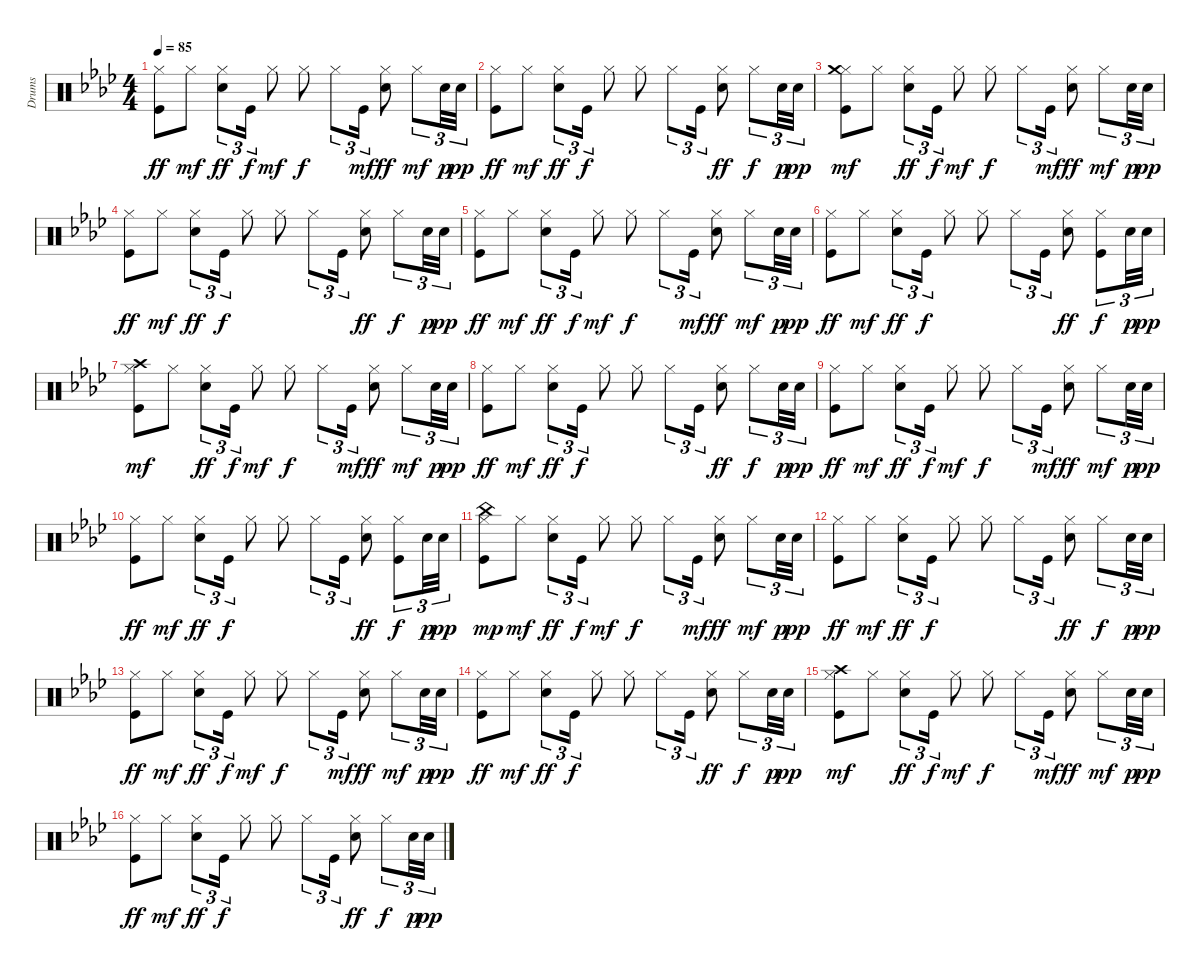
\track ("Drums" "Drums") {instrument percussion}
\staff {score}
\articulation defaults
\ts (4 4)
\tempo 85
\clef neutral
\ks ab
("Kick (hit)" "Hi-Hat (closed)").8{dy ff} "Hi-Hat (closed)".8{dy mf} ("Electric Snare (hit)" "Hi-Hat (closed)").8{tu (3 2) dy ff} "Kick (hit)".16{tu (3 2) dy f} "Hi-Hat (closed)".8{dy mf} "Hi-Hat (closed)".8{dy f} "Hi-Hat (closed)".8{tu (3 2)} "Kick (hit)".16{tu (3 2) dy mf} ("Electric Snare (hit)" "Hi-Hat (closed)").8{dy ff} "Hi-Hat (closed)".8{tu (3 2) dy mf} "Snare (hit) 2".32{tu (3 2) dy p} "Snare (hit) 2".32{tu (3 2) dy pp} |
("Kick (hit)" "Hi-Hat (closed)").8{dy ff} "Hi-Hat (closed)".8{dy mf} ("Electric Snare (hit)" "Hi-Hat (closed)").8{tu (3 2) dy ff} "Kick (hit)".16{tu (3 2) dy f} "Hi-Hat (closed)".8 "Hi-Hat (closed)".8 "Hi-Hat (closed)".8{tu (3 2)} "Kick (hit)".16{tu (3 2)} ("Electric Snare (hit)" "Hi-Hat (closed)").8{dy ff} "Hi-Hat (closed)".8{tu (3 2) dy f} "Snare (hit) 2".32{tu (3 2) dy p} "Snare (hit) 2".32{tu (3 2) dy pp} |
("Kick (hit)" "Hi-Hat (closed)" "Crash medium (hit)").8{dy mf} "Hi-Hat (closed)".8 ("Electric Snare (hit)" "Hi-Hat (closed)").8{tu (3 2) dy ff} "Kick (hit)".16{tu (3 2) dy f} "Hi-Hat (closed)".8{dy mf} "Hi-Hat (closed)".8{dy f} "Hi-Hat (closed)".8{tu (3 2)} "Kick (hit)".16{tu (3 2) dy mf} ("Electric Snare (hit)" "Hi-Hat (closed)").8{dy ff} "Hi-Hat (closed)".8{tu (3 2) dy mf} "Snare (hit) 2".32{tu (3 2) dy p} "Snare (hit) 2".32{tu (3 2) dy pp} |
("Kick (hit)" "Hi-Hat (closed)").8{dy ff} "Hi-Hat (closed)".8{dy mf} ("Electric Snare (hit)" "Hi-Hat (closed)").8{tu (3 2) dy ff} "Kick (hit)".16{tu (3 2) dy f} "Hi-Hat (closed)".8 "Hi-Hat (closed)".8 "Hi-Hat (closed)".8{tu (3 2)} "Kick (hit)".16{tu (3 2)} ("Electric Snare (hit)" "Hi-Hat (closed)").8{dy ff} "Hi-Hat (closed)".8{tu (3 2) dy f} "Snare (hit) 2".32{tu (3 2) dy p} "Snare (hit) 2".32{tu (3 2) dy pp} |
("Kick (hit)" "Hi-Hat (closed)").8{dy ff} "Hi-Hat (closed)".8{dy mf} ("Electric Snare (hit)" "Hi-Hat (closed)").8{tu (3 2) dy ff} "Kick (hit)".16{tu (3 2) dy f} "Hi-Hat (closed)".8{dy mf} "Hi-Hat (closed)".8{dy f} "Hi-Hat (closed)".8{tu (3 2)} "Kick (hit)".16{tu (3 2) dy mf} ("Electric Snare (hit)" "Hi-Hat (closed)").8{dy ff} "Hi-Hat (closed)".8{tu (3 2) dy mf} "Snare (hit) 2".32{tu (3 2) dy p} "Snare (hit) 2".32{tu (3 2) dy pp} |
("Kick (hit)" "Hi-Hat (closed)").8{dy ff} "Hi-Hat (closed)".8{dy mf} ("Electric Snare (hit)" "Hi-Hat (closed)").8{tu (3 2) dy ff} "Kick (hit)".16{tu (3 2) dy f} "Hi-Hat (closed)".8 "Hi-Hat (closed)".8 "Hi-Hat (closed)".8{tu (3 2)} "Kick (hit)".16{tu (3 2)} ("Electric Snare (hit)" "Hi-Hat (closed)").8{dy ff} ("Kick (hit)" "Hi-Hat (closed)").8{tu (3 2) dy f} "Snare (hit) 2".32{tu (3 2) dy p} "Snare (hit) 2".32{tu (3 2) dy pp} |
("Kick (hit)" "Hi-Hat (closed)" "Crash high (hit)").8{dy mf} "Hi-Hat (closed)".8 ("Electric Snare (hit)" "Hi-Hat (closed)").8{tu (3 2) dy ff} "Kick (hit)".16{tu (3 2) dy f} "Hi-Hat (closed)".8{dy mf} "Hi-Hat (closed)".8{dy f} "Hi-Hat (closed)".8{tu (3 2)} "Kick (hit)".16{tu (3 2) dy mf} ("Electric Snare (hit)" "Hi-Hat (closed)").8{dy ff} "Hi-Hat (closed)".8{tu (3 2) dy mf} "Snare (hit) 2".32{tu (3 2) dy p} "Snare (hit) 2".32{tu (3 2) dy pp} |
("Kick (hit)" "Hi-Hat (closed)").8{dy ff} "Hi-Hat (closed)".8{dy mf} ("Electric Snare (hit)" "Hi-Hat (closed)").8{tu (3 2) dy ff} "Kick (hit)".16{tu (3 2) dy f} "Hi-Hat (closed)".8 "Hi-Hat (closed)".8 "Hi-Hat (closed)".8{tu (3 2)} "Kick (hit)".16{tu (3 2)} ("Electric Snare (hit)" "Hi-Hat (closed)").8{dy ff} "Hi-Hat (closed)".8{tu (3 2) dy f} "Snare (hit) 2".32{tu (3 2) dy p} "Snare (hit) 2".32{tu (3 2) dy pp} |
("Kick (hit)" "Hi-Hat (closed)").8{dy ff} "Hi-Hat (closed)".8{dy mf} ("Electric Snare (hit)" "Hi-Hat (closed)").8{tu (3 2) dy ff} "Kick (hit)".16{tu (3 2) dy f} "Hi-Hat (closed)".8{dy mf} "Hi-Hat (closed)".8{dy f} "Hi-Hat (closed)".8{tu (3 2)} "Kick (hit)".16{tu (3 2) dy mf} ("Electric Snare (hit)" "Hi-Hat (closed)").8{dy ff} "Hi-Hat (closed)".8{tu (3 2) dy mf} "Snare (hit) 2".32{tu (3 2) dy p} "Snare (hit) 2".32{tu (3 2) dy pp} |
("Kick (hit)" "Hi-Hat (closed)").8{dy ff} "Hi-Hat (closed)".8{dy mf} ("Electric Snare (hit)" "Hi-Hat (closed)").8{tu (3 2) dy ff} "Kick (hit)".16{tu (3 2) dy f} "Hi-Hat (closed)".8 "Hi-Hat (closed)".8 "Hi-Hat (closed)".8{tu (3 2)} "Kick (hit)".16{tu (3 2)} ("Electric Snare (hit)" "Hi-Hat (closed)").8{dy ff} ("Kick (hit)" "Hi-Hat (closed)").8{tu (3 2) dy f} "Snare (hit) 2".32{tu (3 2) dy p} "Snare (hit) 2".32{tu (3 2) dy pp} |
("Kick (hit)" "Hi-Hat (closed)" "China (hit)").8{dy mp} "Hi-Hat (closed)".8{dy mf} ("Electric Snare (hit)" "Hi-Hat (closed)").8{tu (3 2) dy ff} "Kick (hit)".16{tu (3 2) dy f} "Hi-Hat (closed)".8{dy mf} "Hi-Hat (closed)".8{dy f} "Hi-Hat (closed)".8{tu (3 2)} "Kick (hit)".16{tu (3 2) dy mf} ("Electric Snare (hit)" "Hi-Hat (closed)").8{dy ff} "Hi-Hat (closed)".8{tu (3 2) dy mf} "Snare (hit) 2".32{tu (3 2) dy p} "Snare (hit) 2".32{tu (3 2) dy pp} |
("Kick (hit)" "Hi-Hat (closed)").8{dy ff} "Hi-Hat (closed)".8{dy mf} ("Electric Snare (hit)" "Hi-Hat (closed)").8{tu (3 2) dy ff} "Kick (hit)".16{tu (3 2) dy f} "Hi-Hat (closed)".8 "Hi-Hat (closed)".8 "Hi-Hat (closed)".8{tu (3 2)} "Kick (hit)".16{tu (3 2)} ("Electric Snare (hit)" "Hi-Hat (closed)").8{dy ff} "Hi-Hat (closed)".8{tu (3 2) dy f} "Snare (hit) 2".32{tu (3 2) dy p} "Snare (hit) 2".32{tu (3 2) dy pp} |
("Kick (hit)" "Hi-Hat (closed)").8{dy ff} "Hi-Hat (closed)".8{dy mf} ("Electric Snare (hit)" "Hi-Hat (closed)").8{tu (3 2) dy ff} "Kick (hit)".16{tu (3 2) dy f} "Hi-Hat (closed)".8{dy mf} "Hi-Hat (closed)".8{dy f} "Hi-Hat (closed)".8{tu (3 2)} "Kick (hit)".16{tu (3 2) dy mf} ("Electric Snare (hit)" "Hi-Hat (closed)").8{dy ff} "Hi-Hat (closed)".8{tu (3 2) dy mf} "Snare (hit) 2".32{tu (3 2) dy p} "Snare (hit) 2".32{tu (3 2) dy pp} |
("Kick (hit)" "Hi-Hat (closed)").8{dy ff} "Hi-Hat (closed)".8{dy mf} ("Electric Snare (hit)" "Hi-Hat (closed)").8{tu (3 2) dy ff} "Kick (hit)".16{tu (3 2) dy f} "Hi-Hat (closed)".8 "Hi-Hat (closed)".8 "Hi-Hat (closed)".8{tu (3 2)} "Kick (hit)".16{tu (3 2)} ("Electric Snare (hit)" "Hi-Hat (closed)").8{dy ff} "Hi-Hat (closed)".8{tu (3 2) dy f} "Snare (hit) 2".32{tu (3 2) dy p} "Snare (hit) 2".32{tu (3 2) dy pp} |
("Kick (hit)" "Hi-Hat (closed)" "Crash high (hit)").8{dy mf} "Hi-Hat (closed)".8 ("Electric Snare (hit)" "Hi-Hat (closed)").8{tu (3 2) dy ff} "Kick (hit)".16{tu (3 2) dy f} "Hi-Hat (closed)".8{dy mf} "Hi-Hat (closed)".8{dy f} "Hi-Hat (closed)".8{tu (3 2)} "Kick (hit)".16{tu (3 2) dy mf} ("Electric Snare (hit)" "Hi-Hat (closed)").8{dy ff} "Hi-Hat (closed)".8{tu (3 2) dy mf} "Snare (hit) 2".32{tu (3 2) dy p} "Snare (hit) 2".32{tu (3 2) dy pp} |
("Kick (hit)" "Hi-Hat (closed)").8{dy ff} "Hi-Hat (closed)".8{dy mf} ("Electric Snare (hit)" "Hi-Hat (closed)").8{tu (3 2) dy ff} "Kick (hit)".16{tu (3 2) dy f} "Hi-Hat (closed)".8 "Hi-Hat (closed)".8 "Hi-Hat (closed)".8{tu (3 2)} "Kick (hit)".16{tu (3 2)} ("Electric Snare (hit)" "Hi-Hat (closed)").8{dy ff} "Hi-Hat (closed)".8{tu (3 2) dy f} "Snare (hit) 2".32{tu (3 2) dy p} "Snare (hit) 2".32{tu (3 2) dy pp}
